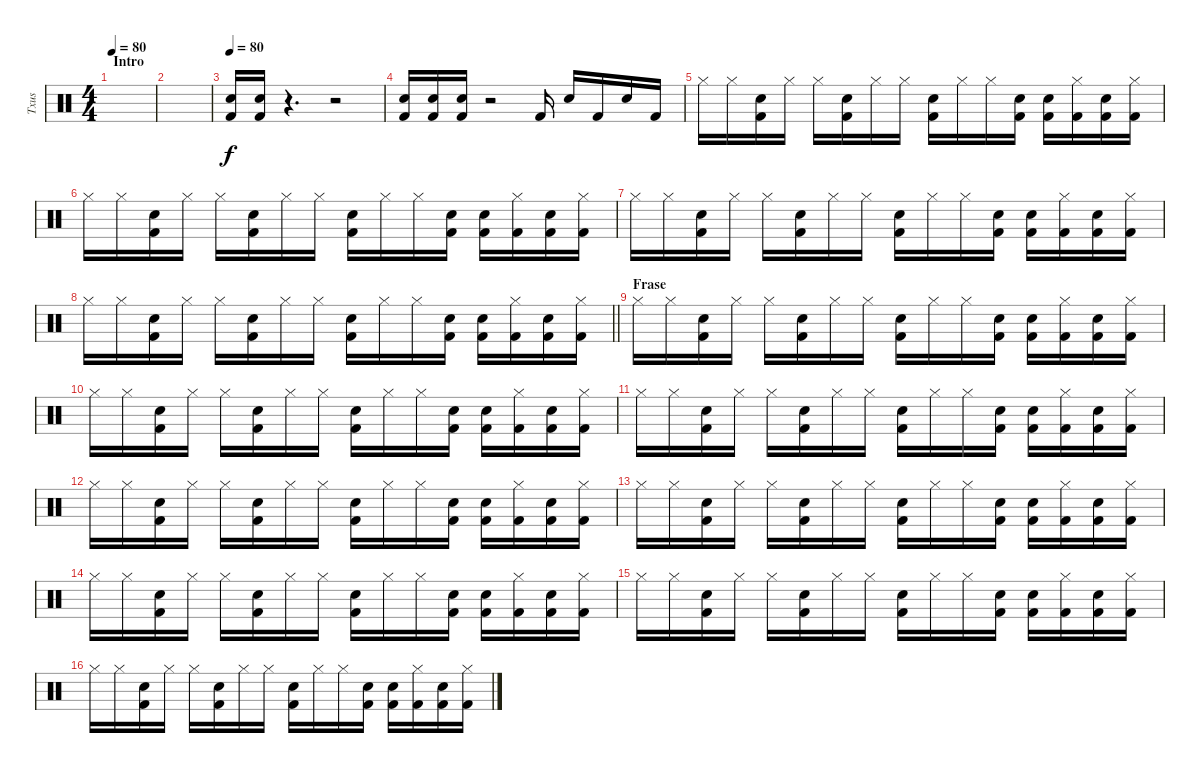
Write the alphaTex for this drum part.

\track ("Txus" "Txus") {instrument percussion}
\staff {score}
\articulation defaults
\ts (4 4)
\section ("" "Intro")
\tempo 80
\clef neutral
\ks c
|
|
\tempo 80
("Snare (hit) 2" "Kick (hit) 2").16 ("Snare (hit) 2" "Kick (hit) 2").16 r.4{d} r.2 |
("Snare (hit) 2" "Kick (hit) 2").16 ("Snare (hit) 2" "Kick (hit) 2").16 ("Snare (hit) 2" "Kick (hit) 2").16 r.2 "Kick (hit) 2".16 "Snare (hit) 2".16 "Kick (hit) 2".16 "Snare (hit) 2".16 "Kick (hit) 2".16 |
"Hi-Hat (closed)".16 "Hi-Hat (closed)".16 ("Snare (hit) 2" "Kick (hit) 2").16 "Hi-Hat (closed)".16 "Hi-Hat (closed)".16 ("Snare (hit) 2" "Kick (hit) 2").16 "Hi-Hat (closed)".16 "Hi-Hat (closed)".16 ("Snare (hit) 2" "Kick (hit) 2").16 "Hi-Hat (closed)".16 "Hi-Hat (closed)".16 ("Snare (hit) 2" "Kick (hit) 2").16 ("Snare (hit) 2" "Kick (hit) 2").16 ("Hi-Hat (closed)" "Kick (hit) 2").16 ("Snare (hit) 2" "Kick (hit) 2").16 ("Hi-Hat (closed)" "Kick (hit) 2").16 |
"Hi-Hat (closed)".16 "Hi-Hat (closed)".16 ("Snare (hit) 2" "Kick (hit) 2").16 "Hi-Hat (closed)".16 "Hi-Hat (closed)".16 ("Snare (hit) 2" "Kick (hit) 2").16 "Hi-Hat (closed)".16 "Hi-Hat (closed)".16 ("Snare (hit) 2" "Kick (hit) 2").16 "Hi-Hat (closed)".16 "Hi-Hat (closed)".16 ("Snare (hit) 2" "Kick (hit) 2").16 ("Snare (hit) 2" "Kick (hit) 2").16 ("Hi-Hat (closed)" "Kick (hit) 2").16 ("Snare (hit) 2" "Kick (hit) 2").16 ("Hi-Hat (closed)" "Kick (hit) 2").16 |
"Hi-Hat (closed)".16 "Hi-Hat (closed)".16 ("Snare (hit) 2" "Kick (hit) 2").16 "Hi-Hat (closed)".16 "Hi-Hat (closed)".16 ("Snare (hit) 2" "Kick (hit) 2").16 "Hi-Hat (closed)".16 "Hi-Hat (closed)".16 ("Snare (hit) 2" "Kick (hit) 2").16 "Hi-Hat (closed)".16 "Hi-Hat (closed)".16 ("Snare (hit) 2" "Kick (hit) 2").16 ("Snare (hit) 2" "Kick (hit) 2").16 ("Hi-Hat (closed)" "Kick (hit) 2").16 ("Snare (hit) 2" "Kick (hit) 2").16 ("Hi-Hat (closed)" "Kick (hit) 2").16 |
\barLineRight lightlight "Hi-Hat (closed)".16 "Hi-Hat (closed)".16
("Snare (hit) 2" "Kick (hit) 2").16 "Hi-Hat (closed)".16 "Hi-Hat (closed)".16 ("Snare (hit) 2" "Kick (hit) 2").16 "Hi-Hat (closed)".16 "Hi-Hat (closed)".16 ("Snare (hit) 2" "Kick (hit) 2").16 "Hi-Hat (closed)".16 "Hi-Hat (closed)".16 ("Snare (hit) 2" "Kick (hit) 2").16 ("Snare (hit) 2" "Kick (hit) 2").16 ("Hi-Hat (closed)" "Kick (hit) 2").16 ("Snare (hit) 2" "Kick (hit) 2").16 ("Hi-Hat (closed)" "Kick (hit) 2").16 |
\section ("" "Frase")
"Hi-Hat (closed)".16 "Hi-Hat (closed)".16 ("Snare (hit) 2" "Kick (hit) 2").16 "Hi-Hat (closed)".16 "Hi-Hat (closed)".16 ("Snare (hit) 2" "Kick (hit) 2").16 "Hi-Hat (closed)".16 "Hi-Hat (closed)".16 ("Snare (hit) 2" "Kick (hit) 2").16 "Hi-Hat (closed)".16 "Hi-Hat (closed)".16 ("Snare (hit) 2" "Kick (hit) 2").16 ("Snare (hit) 2" "Kick (hit) 2").16 ("Hi-Hat (closed)" "Kick (hit) 2").16 ("Snare (hit) 2" "Kick (hit) 2").16 ("Hi-Hat (closed)" "Kick (hit) 2").16 |
"Hi-Hat (closed)".16 "Hi-Hat (closed)".16 ("Snare (hit) 2" "Kick (hit) 2").16 "Hi-Hat (closed)".16 "Hi-Hat (closed)".16 ("Snare (hit) 2" "Kick (hit) 2").16 "Hi-Hat (closed)".16 "Hi-Hat (closed)".16 ("Snare (hit) 2" "Kick (hit) 2").16 "Hi-Hat (closed)".16 "Hi-Hat (closed)".16 ("Snare (hit) 2" "Kick (hit) 2").16 ("Snare (hit) 2" "Kick (hit) 2").16 ("Hi-Hat (closed)" "Kick (hit) 2").16 ("Snare (hit) 2" "Kick (hit) 2").16 ("Hi-Hat (closed)" "Kick (hit) 2").16 |
"Hi-Hat (closed)".16 "Hi-Hat (closed)".16 ("Snare (hit) 2" "Kick (hit) 2").16 "Hi-Hat (closed)".16 "Hi-Hat (closed)".16 ("Snare (hit) 2" "Kick (hit) 2").16 "Hi-Hat (closed)".16 "Hi-Hat (closed)".16 ("Snare (hit) 2" "Kick (hit) 2").16 "Hi-Hat (closed)".16 "Hi-Hat (closed)".16 ("Snare (hit) 2" "Kick (hit) 2").16 ("Snare (hit) 2" "Kick (hit) 2").16 ("Hi-Hat (closed)" "Kick (hit) 2").16 ("Snare (hit) 2" "Kick (hit) 2").16 ("Hi-Hat (closed)" "Kick (hit) 2").16 |
"Hi-Hat (closed)".16 "Hi-Hat (closed)".16 ("Snare (hit) 2" "Kick (hit) 2").16 "Hi-Hat (closed)".16 "Hi-Hat (closed)".16 ("Snare (hit) 2" "Kick (hit) 2").16 "Hi-Hat (closed)".16 "Hi-Hat (closed)".16 ("Snare (hit) 2" "Kick (hit) 2").16 "Hi-Hat (closed)".16 "Hi-Hat (closed)".16 ("Snare (hit) 2" "Kick (hit) 2").16 ("Snare (hit) 2" "Kick (hit) 2").16 ("Hi-Hat (closed)" "Kick (hit) 2").16 ("Snare (hit) 2" "Kick (hit) 2").16 ("Hi-Hat (closed)" "Kick (hit) 2").16 |
"Hi-Hat (closed)".16 "Hi-Hat (closed)".16 ("Snare (hit) 2" "Kick (hit) 2").16 "Hi-Hat (closed)".16 "Hi-Hat (closed)".16 ("Snare (hit) 2" "Kick (hit) 2").16 "Hi-Hat (closed)".16 "Hi-Hat (closed)".16 ("Snare (hit) 2" "Kick (hit) 2").16 "Hi-Hat (closed)".16 "Hi-Hat (closed)".16 ("Snare (hit) 2" "Kick (hit) 2").16 ("Snare (hit) 2" "Kick (hit) 2").16 ("Hi-Hat (closed)" "Kick (hit) 2").16 ("Snare (hit) 2" "Kick (hit) 2").16 ("Hi-Hat (closed)" "Kick (hit) 2").16 |
"Hi-Hat (closed)".16 "Hi-Hat (closed)".16 ("Snare (hit) 2" "Kick (hit) 2").16 "Hi-Hat (closed)".16 "Hi-Hat (closed)".16 ("Snare (hit) 2" "Kick (hit) 2").16 "Hi-Hat (closed)".16 "Hi-Hat (closed)".16 ("Snare (hit) 2" "Kick (hit) 2").16 "Hi-Hat (closed)".16 "Hi-Hat (closed)".16 ("Snare (hit) 2" "Kick (hit) 2").16 ("Snare (hit) 2" "Kick (hit) 2").16 ("Hi-Hat (closed)" "Kick (hit) 2").16 ("Snare (hit) 2" "Kick (hit) 2").16 ("Hi-Hat (closed)" "Kick (hit) 2").16 |
"Hi-Hat (closed)".16 "Hi-Hat (closed)".16 ("Snare (hit) 2" "Kick (hit) 2").16 "Hi-Hat (closed)".16 "Hi-Hat (closed)".16 ("Snare (hit) 2" "Kick (hit) 2").16 "Hi-Hat (closed)".16 "Hi-Hat (closed)".16 ("Snare (hit) 2" "Kick (hit) 2").16 "Hi-Hat (closed)".16 "Hi-Hat (closed)".16 ("Snare (hit) 2" "Kick (hit) 2").16 ("Snare (hit) 2" "Kick (hit) 2").16 ("Hi-Hat (closed)" "Kick (hit) 2").16 ("Snare (hit) 2" "Kick (hit) 2").16 ("Hi-Hat (closed)" "Kick (hit) 2").16 |
"Hi-Hat (closed)".16 "Hi-Hat (closed)".16 ("Snare (hit) 2" "Kick (hit) 2").16 "Hi-Hat (closed)".16 "Hi-Hat (closed)".16 ("Snare (hit) 2" "Kick (hit) 2").16 "Hi-Hat (closed)".16 "Hi-Hat (closed)".16 ("Snare (hit) 2" "Kick (hit) 2").16 "Hi-Hat (closed)".16 "Hi-Hat (closed)".16 ("Snare (hit) 2" "Kick (hit) 2").16 ("Snare (hit) 2" "Kick (hit) 2").16 ("Hi-Hat (closed)" "Kick (hit) 2").16 ("Snare (hit) 2" "Kick (hit) 2").16 ("Hi-Hat (closed)" "Kick (hit) 2").16
